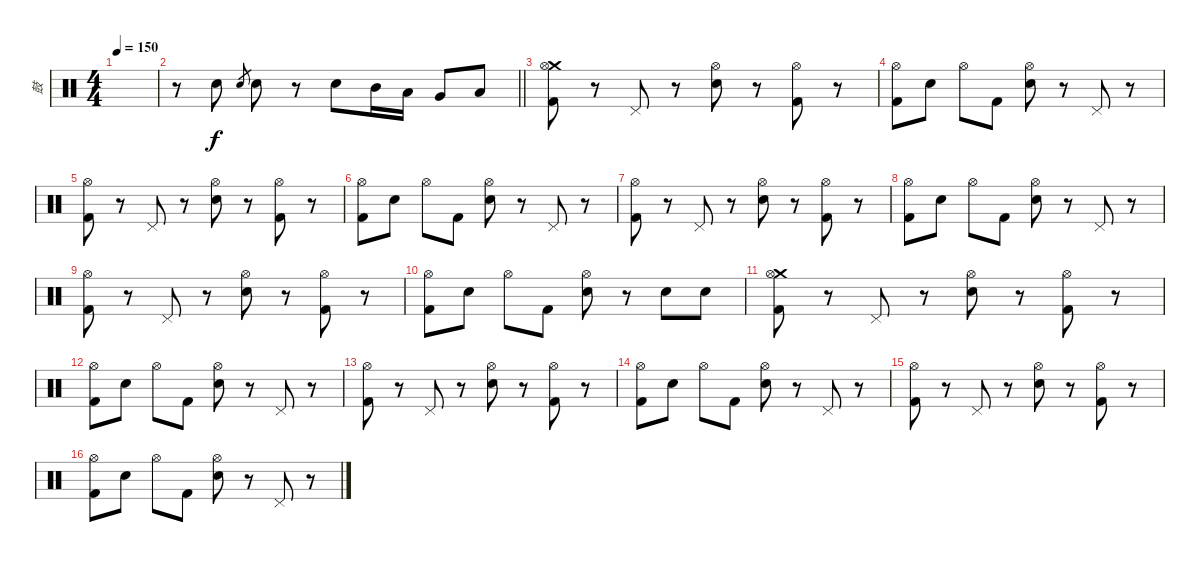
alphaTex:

\track ("鼓" "鼓") {instrument percussion}
\staff {score}
\articulation defaults
\ts (4 4)
\tempo 150
\clef neutral
\ks c
|
\barLineRight lightlight
r.8 "Electric Snare (hit)".8 "Electric Snare (hit)".8{gr} "Electric Snare (hit)".8 r.8 "Electric Snare (hit)".8 "Mid Tom (hit)".16 "Low Tom (hit)".16 "Very Low Tom (hit)".8 "Low Floor Tom (hit)".8 |
("Crash medium (hit)" "Hi-Hat (open)" "Kick (hit) 2").8 r.8 "Pedal Hi-Hat (hit)".8 r.8 ("Hi-Hat (open)" "Electric Snare (hit)").8 r.8 ("Hi-Hat (open)" "Kick (hit) 2").8 r.8 |
("Hi-Hat (open)" "Kick (hit) 2").8 "Electric Snare (hit)".8 "Hi-Hat (open)".8 "Kick (hit) 2".8 ("Hi-Hat (open)" "Electric Snare (hit)").8 r.8 "Pedal Hi-Hat (hit)".8 r.8 |
("Hi-Hat (open)" "Kick (hit) 2").8 r.8 "Pedal Hi-Hat (hit)".8 r.8 ("Hi-Hat (open)" "Electric Snare (hit)").8 r.8 ("Hi-Hat (open)" "Kick (hit) 2").8 r.8 |
("Hi-Hat (open)" "Kick (hit) 2").8 "Electric Snare (hit)".8 "Hi-Hat (open)".8 "Kick (hit) 2".8 ("Hi-Hat (open)" "Electric Snare (hit)").8 r.8 "Pedal Hi-Hat (hit)".8 r.8 |
("Hi-Hat (open)" "Kick (hit) 2").8 r.8 "Pedal Hi-Hat (hit)".8 r.8 ("Hi-Hat (open)" "Electric Snare (hit)").8 r.8 ("Hi-Hat (open)" "Kick (hit) 2").8 r.8 |
("Hi-Hat (open)" "Kick (hit) 2").8 "Electric Snare (hit)".8 "Hi-Hat (open)".8 "Kick (hit) 2".8 ("Hi-Hat (open)" "Electric Snare (hit)").8 r.8 "Pedal Hi-Hat (hit)".8 r.8 |
("Hi-Hat (open)" "Kick (hit) 2").8 r.8 "Pedal Hi-Hat (hit)".8 r.8 ("Hi-Hat (open)" "Electric Snare (hit)").8 r.8 ("Hi-Hat (open)" "Kick (hit) 2").8 r.8 |
("Hi-Hat (open)" "Kick (hit) 2").8 "Electric Snare (hit)".8 "Hi-Hat (open)".8 "Kick (hit) 2".8 ("Hi-Hat (open)" "Electric Snare (hit)").8 r.8 "Electric Snare (hit)".8 "Electric Snare (hit)".8 |
("Crash medium (hit)" "Hi-Hat (open)" "Kick (hit) 2").8 r.8 "Pedal Hi-Hat (hit)".8 r.8 ("Hi-Hat (open)" "Electric Snare (hit)").8 r.8 ("Hi-Hat (open)" "Kick (hit) 2").8 r.8 |
("Hi-Hat (open)" "Kick (hit) 2").8 "Electric Snare (hit)".8 "Hi-Hat (open)".8 "Kick (hit) 2".8 ("Hi-Hat (open)" "Electric Snare (hit)").8 r.8 "Pedal Hi-Hat (hit)".8 r.8 |
("Hi-Hat (open)" "Kick (hit) 2").8 r.8 "Pedal Hi-Hat (hit)".8 r.8 ("Hi-Hat (open)" "Electric Snare (hit)").8 r.8 ("Hi-Hat (open)" "Kick (hit) 2").8 r.8 |
("Hi-Hat (open)" "Kick (hit) 2").8 "Electric Snare (hit)".8 "Hi-Hat (open)".8 "Kick (hit) 2".8 ("Hi-Hat (open)" "Electric Snare (hit)").8 r.8 "Pedal Hi-Hat (hit)".8 r.8 |
("Hi-Hat (open)" "Kick (hit) 2").8 r.8 "Pedal Hi-Hat (hit)".8 r.8 ("Hi-Hat (open)" "Electric Snare (hit)").8 r.8 ("Hi-Hat (open)" "Kick (hit) 2").8 r.8 |
("Hi-Hat (open)" "Kick (hit) 2").8 "Electric Snare (hit)".8 "Hi-Hat (open)".8 "Kick (hit) 2".8 ("Hi-Hat (open)" "Electric Snare (hit)").8 r.8 "Pedal Hi-Hat (hit)".8 r.8
